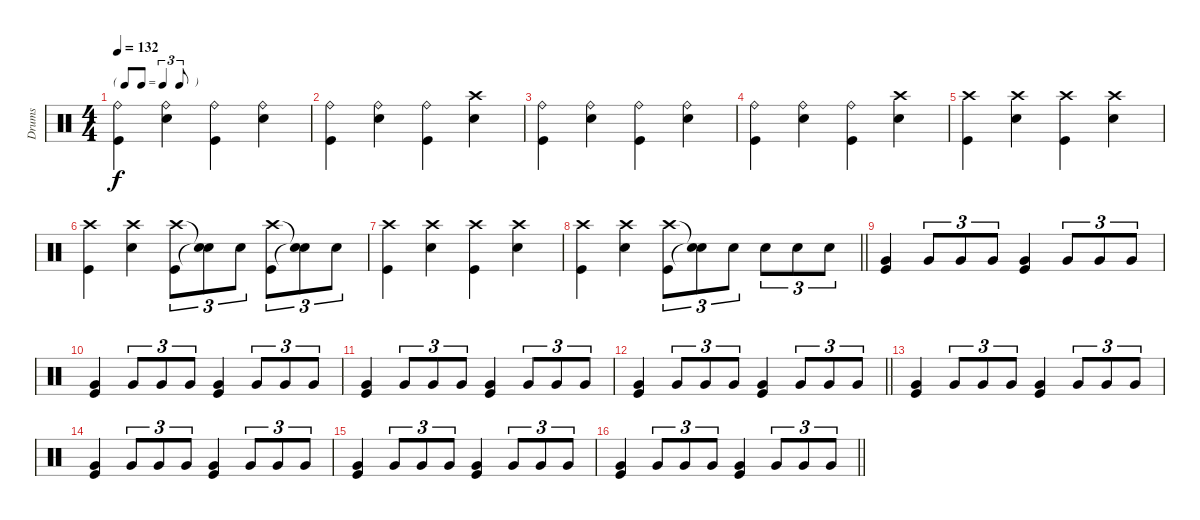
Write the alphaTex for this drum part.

\track ("Drums" "Drums") {instrument percussion}
\staff {score}
\articulation defaults
\ts (4 4)
\tf triplet8th
\tempo 132
\clef neutral
\ks c
("Ride (bell)" "Kick (hit)").4{dy f} ("Ride (bell)" "Electric Snare (hit)").4 ("Ride (bell)" "Kick (hit)").4 ("Ride (bell)" "Electric Snare (hit)").4 |
("Ride (bell)" "Kick (hit)").4 ("Ride (bell)" "Electric Snare (hit)").4 ("Ride (bell)" "Kick (hit)").4 ("Crash high (hit)" "Electric Snare (hit)").4 |
("Ride (bell)" "Kick (hit)").4 ("Ride (bell)" "Electric Snare (hit)").4 ("Ride (bell)" "Kick (hit)").4 ("Ride (bell)" "Electric Snare (hit)").4 |
("Ride (bell)" "Kick (hit)").4 ("Ride (bell)" "Electric Snare (hit)").4 ("Ride (bell)" "Kick (hit)").4 ("Crash high (hit)" "Electric Snare (hit)").4 |
("Crash high (hit)" "Kick (hit)").4 ("Crash high (hit)" "Electric Snare (hit)").4 ("Crash high (hit)" "Kick (hit)").4 ("Crash high (hit)" "Electric Snare (hit)").4 |
("Crash high (hit)" "Kick (hit)").4 ("Crash high (hit)" "Electric Snare (hit)").4 ("Crash high (hit)" "Kick (hit)").8{tu (3 2)} ("Snare (hit)"{t} "Snare (hit)"{t}).8{tu (3 2)} "Electric Snare (hit)".8{tu (3 2)} ("Crash high (hit)" "Kick (hit)").8{tu (3 2)} ("Snare (hit)"{t} "Snare (hit)"{t}).8{tu (3 2)} "Electric Snare (hit)".8{tu (3 2)} |
("Crash high (hit)" "Kick (hit)").4 ("Crash high (hit)" "Electric Snare (hit)").4 ("Crash high (hit)" "Kick (hit)").4 ("Crash high (hit)" "Electric Snare (hit)").4 |
\barLineRight lightlight
("Crash high (hit)" "Kick (hit)").4 ("Crash high (hit)" "Electric Snare (hit)").4 ("Crash high (hit)" "Kick (hit)").8{tu (3 2)} ("Snare (hit)"{t} "Snare (hit)"{t}).8{tu (3 2)} "Electric Snare (hit)".8{tu (3 2)} "Electric Snare (hit)".8{tu (3 2)} "Electric Snare (hit)".8{tu (3 2)} "Electric Snare (hit)".8{tu (3 2)} |
("Very Low Tom (hit)" "Kick (hit)").4 "Very Low Tom (hit)".8{tu (3 2)} "Very Low Tom (hit)".8{tu (3 2)} "Very Low Tom (hit)".8{tu (3 2)} ("Very Low Tom (hit)" "Kick (hit)").4 "Very Low Tom (hit)".8{tu (3 2)} "Very Low Tom (hit)".8{tu (3 2)} "Very Low Tom (hit)".8{tu (3 2)} |
("Very Low Tom (hit)" "Kick (hit)").4 "Very Low Tom (hit)".8{tu (3 2)} "Very Low Tom (hit)".8{tu (3 2)} "Very Low Tom (hit)".8{tu (3 2)} ("Very Low Tom (hit)" "Kick (hit)").4 "Very Low Tom (hit)".8{tu (3 2)} "Very Low Tom (hit)".8{tu (3 2)} "Very Low Tom (hit)".8{tu (3 2)} |
("Very Low Tom (hit)" "Kick (hit)").4 "Very Low Tom (hit)".8{tu (3 2)} "Very Low Tom (hit)".8{tu (3 2)} "Very Low Tom (hit)".8{tu (3 2)} ("Very Low Tom (hit)" "Kick (hit)").4 "Very Low Tom (hit)".8{tu (3 2)} "Very Low Tom (hit)".8{tu (3 2)} "Very Low Tom (hit)".8{tu (3 2)} |
\barLineRight lightlight
("Very Low Tom (hit)" "Kick (hit)").4 "Very Low Tom (hit)".8{tu (3 2)} "Very Low Tom (hit)".8{tu (3 2)} "Very Low Tom (hit)".8{tu (3 2)} ("Very Low Tom (hit)" "Kick (hit)").4 "Very Low Tom (hit)".8{tu (3 2)} "Very Low Tom (hit)".8{tu (3 2)} "Very Low Tom (hit)".8{tu (3 2)} |
("Very Low Tom (hit)" "Kick (hit)").4 "Very Low Tom (hit)".8{tu (3 2)} "Very Low Tom (hit)".8{tu (3 2)} "Very Low Tom (hit)".8{tu (3 2)} ("Very Low Tom (hit)" "Kick (hit)").4 "Very Low Tom (hit)".8{tu (3 2)} "Very Low Tom (hit)".8{tu (3 2)} "Very Low Tom (hit)".8{tu (3 2)} |
("Very Low Tom (hit)" "Kick (hit)").4 "Very Low Tom (hit)".8{tu (3 2)} "Very Low Tom (hit)".8{tu (3 2)} "Very Low Tom (hit)".8{tu (3 2)} ("Very Low Tom (hit)" "Kick (hit)").4 "Very Low Tom (hit)".8{tu (3 2)} "Very Low Tom (hit)".8{tu (3 2)} "Very Low Tom (hit)".8{tu (3 2)} |
("Very Low Tom (hit)" "Kick (hit)").4 "Very Low Tom (hit)".8{tu (3 2)} "Very Low Tom (hit)".8{tu (3 2)} "Very Low Tom (hit)".8{tu (3 2)} ("Very Low Tom (hit)" "Kick (hit)").4 "Very Low Tom (hit)".8{tu (3 2)} "Very Low Tom (hit)".8{tu (3 2)} "Very Low Tom (hit)".8{tu (3 2)} |
\barLineRight lightlight
("Very Low Tom (hit)" "Kick (hit)").4 "Very Low Tom (hit)".8{tu (3 2)} "Very Low Tom (hit)".8{tu (3 2)} "Very Low Tom (hit)".8{tu (3 2)} ("Very Low Tom (hit)" "Kick (hit)").4 "Very Low Tom (hit)".8{tu (3 2)} "Very Low Tom (hit)".8{tu (3 2)} "Very Low Tom (hit)".8{tu (3 2)}
